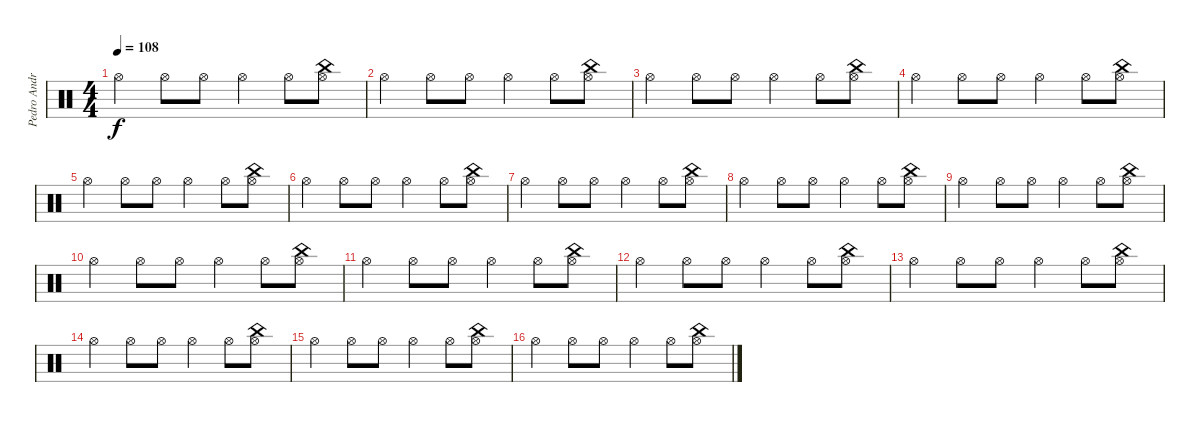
\track ("Pedro Andreu" "Pedro Andr") {instrument percussion}
\staff {score}
\articulation defaults
\ts (4 4)
\tempo 108
\clef neutral
\ks c "Hi-Hat (open)".4{dy f} "Hi-Hat (open)".8 "Hi-Hat (open)".8 "Hi-Hat (open)".4 "Hi-Hat (open)".8
("Hi-Hat (open)" "China (hit)").8 |
"Hi-Hat (open)".4 "Hi-Hat (open)".8 "Hi-Hat (open)".8 "Hi-Hat (open)".4 "Hi-Hat (open)".8 ("Hi-Hat (open)" "China (hit)").8 |
"Hi-Hat (open)".4 "Hi-Hat (open)".8 "Hi-Hat (open)".8 "Hi-Hat (open)".4 "Hi-Hat (open)".8 ("Hi-Hat (open)" "China (hit)").8 |
"Hi-Hat (open)".4 "Hi-Hat (open)".8 "Hi-Hat (open)".8 "Hi-Hat (open)".4 "Hi-Hat (open)".8 ("Hi-Hat (open)" "China (hit)").8 |
"Hi-Hat (open)".4 "Hi-Hat (open)".8 "Hi-Hat (open)".8 "Hi-Hat (open)".4 "Hi-Hat (open)".8 ("Hi-Hat (open)" "China (hit)").8 |
"Hi-Hat (open)".4 "Hi-Hat (open)".8 "Hi-Hat (open)".8 "Hi-Hat (open)".4 "Hi-Hat (open)".8 ("Hi-Hat (open)" "China (hit)").8 |
"Hi-Hat (open)".4 "Hi-Hat (open)".8 "Hi-Hat (open)".8 "Hi-Hat (open)".4 "Hi-Hat (open)".8 ("Hi-Hat (open)" "China (hit)").8 |
"Hi-Hat (open)".4 "Hi-Hat (open)".8 "Hi-Hat (open)".8 "Hi-Hat (open)".4 "Hi-Hat (open)".8 ("Hi-Hat (open)" "China (hit)").8 |
"Hi-Hat (open)".4 "Hi-Hat (open)".8 "Hi-Hat (open)".8 "Hi-Hat (open)".4 "Hi-Hat (open)".8 ("Hi-Hat (open)" "China (hit)").8 |
"Hi-Hat (open)".4 "Hi-Hat (open)".8 "Hi-Hat (open)".8 "Hi-Hat (open)".4 "Hi-Hat (open)".8 ("Hi-Hat (open)" "China (hit)").8 |
"Hi-Hat (open)".4 "Hi-Hat (open)".8 "Hi-Hat (open)".8 "Hi-Hat (open)".4 "Hi-Hat (open)".8 ("Hi-Hat (open)" "China (hit)").8 |
"Hi-Hat (open)".4 "Hi-Hat (open)".8 "Hi-Hat (open)".8 "Hi-Hat (open)".4 "Hi-Hat (open)".8 ("Hi-Hat (open)" "China (hit)").8 |
"Hi-Hat (open)".4 "Hi-Hat (open)".8 "Hi-Hat (open)".8 "Hi-Hat (open)".4 "Hi-Hat (open)".8 ("Hi-Hat (open)" "China (hit)").8 |
"Hi-Hat (open)".4 "Hi-Hat (open)".8 "Hi-Hat (open)".8 "Hi-Hat (open)".4 "Hi-Hat (open)".8 ("Hi-Hat (open)" "China (hit)").8 |
"Hi-Hat (open)".4 "Hi-Hat (open)".8 "Hi-Hat (open)".8 "Hi-Hat (open)".4 "Hi-Hat (open)".8 ("Hi-Hat (open)" "China (hit)").8 |
"Hi-Hat (open)".4 "Hi-Hat (open)".8 "Hi-Hat (open)".8 "Hi-Hat (open)".4 "Hi-Hat (open)".8 ("Hi-Hat (open)" "China (hit)").8
